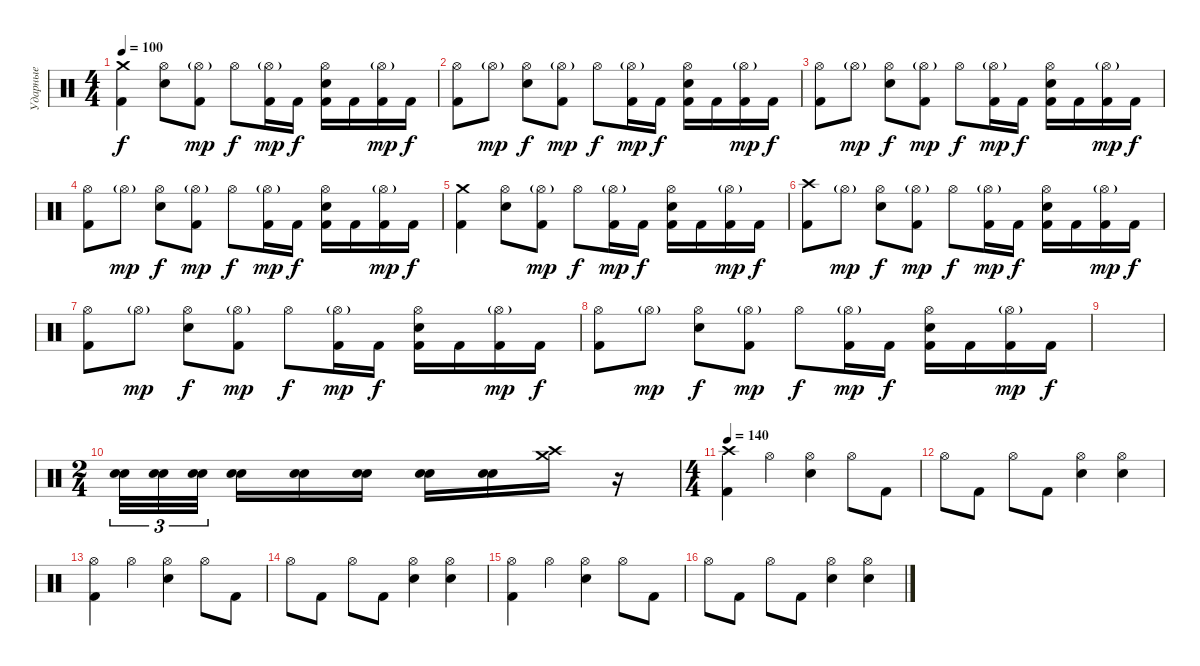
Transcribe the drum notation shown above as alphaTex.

\track ("Ударные" "Ударные") {instrument percussion}
\staff {score}
\articulation defaults
\ts (4 4)
\tempo 100
\clef neutral
\ks c
("Crash medium (hit)" "Kick (hit) 2").4{dy f} ("Hi-Hat (open)" "Snare (hit) 2").8 ("Hi-Hat (open)"{g} "Kick (hit) 2").8{dy mp} "Hi-Hat (open)".8{dy f} ("Hi-Hat (open)"{g} "Kick (hit) 2").16{dy mp} "Kick (hit) 2".16{dy f} ("Hi-Hat (open)" "Snare (hit) 2" "Kick (hit) 2").16 "Kick (hit) 2".16 ("Hi-Hat (open)"{g} "Kick (hit) 2").16{dy mp} "Kick (hit) 2".16{dy f} |
("Hi-Hat (open)" "Kick (hit) 2").8 "Hi-Hat (open)"{g}.8{dy mp} ("Hi-Hat (open)" "Snare (hit) 2").8{dy f} ("Hi-Hat (open)"{g} "Kick (hit) 2").8{dy mp} "Hi-Hat (open)".8{dy f} ("Hi-Hat (open)"{g} "Kick (hit) 2").16{dy mp} "Kick (hit) 2".16{dy f} ("Hi-Hat (open)" "Snare (hit) 2" "Kick (hit) 2").16 "Kick (hit) 2".16 ("Hi-Hat (open)"{g} "Kick (hit) 2").16{dy mp} "Kick (hit) 2".16{dy f} |
("Hi-Hat (open)" "Kick (hit) 2").8 "Hi-Hat (open)"{g}.8{dy mp} ("Hi-Hat (open)" "Snare (hit) 2").8{dy f} ("Hi-Hat (open)"{g} "Kick (hit) 2").8{dy mp} "Hi-Hat (open)".8{dy f} ("Hi-Hat (open)"{g} "Kick (hit) 2").16{dy mp} "Kick (hit) 2".16{dy f} ("Hi-Hat (open)" "Snare (hit) 2" "Kick (hit) 2").16 "Kick (hit) 2".16 ("Hi-Hat (open)"{g} "Kick (hit) 2").16{dy mp} "Kick (hit) 2".16{dy f} |
("Hi-Hat (open)" "Kick (hit) 2").8 "Hi-Hat (open)"{g}.8{dy mp} ("Hi-Hat (open)" "Snare (hit) 2").8{dy f} ("Hi-Hat (open)"{g} "Kick (hit) 2").8{dy mp} "Hi-Hat (open)".8{dy f} ("Hi-Hat (open)"{g} "Kick (hit) 2").16{dy mp} "Kick (hit) 2".16{dy f} ("Hi-Hat (open)" "Snare (hit) 2" "Kick (hit) 2").16 "Kick (hit) 2".16 ("Hi-Hat (open)"{g} "Kick (hit) 2").16{dy mp} "Kick (hit) 2".16{dy f} |
("Crash medium (hit)" "Kick (hit) 2").4 ("Hi-Hat (open)" "Snare (hit) 2").8 ("Hi-Hat (open)"{g} "Kick (hit) 2").8{dy mp} "Hi-Hat (open)".8{dy f} ("Hi-Hat (open)"{g} "Kick (hit) 2").16{dy mp} "Kick (hit) 2".16{dy f} ("Hi-Hat (open)" "Snare (hit) 2" "Kick (hit) 2").16 "Kick (hit) 2".16 ("Hi-Hat (open)"{g} "Kick (hit) 2").16{dy mp} "Kick (hit) 2".16{dy f} |
("Crash high (hit)" "Kick (hit) 2").8 "Hi-Hat (open)"{g}.8{dy mp} ("Hi-Hat (open)" "Snare (hit) 2").8{dy f} ("Hi-Hat (open)"{g} "Kick (hit) 2").8{dy mp} "Hi-Hat (open)".8{dy f} ("Hi-Hat (open)"{g} "Kick (hit) 2").16{dy mp} "Kick (hit) 2".16{dy f} ("Hi-Hat (open)" "Snare (hit) 2" "Kick (hit) 2").16 "Kick (hit) 2".16 ("Hi-Hat (open)"{g} "Kick (hit) 2").16{dy mp} "Kick (hit) 2".16{dy f} |
("Hi-Hat (open)" "Kick (hit) 2").8 "Hi-Hat (open)"{g}.8{dy mp} ("Hi-Hat (open)" "Snare (hit) 2").8{dy f} ("Hi-Hat (open)"{g} "Kick (hit) 2").8{dy mp} "Hi-Hat (open)".8{dy f} ("Hi-Hat (open)"{g} "Kick (hit) 2").16{dy mp} "Kick (hit) 2".16{dy f} ("Hi-Hat (open)" "Snare (hit) 2" "Kick (hit) 2").16 "Kick (hit) 2".16 ("Hi-Hat (open)"{g} "Kick (hit) 2").16{dy mp} "Kick (hit) 2".16{dy f} |
("Hi-Hat (open)" "Kick (hit) 2").8 "Hi-Hat (open)"{g}.8{dy mp} ("Hi-Hat (open)" "Snare (hit) 2").8{dy f} ("Hi-Hat (open)"{g} "Kick (hit) 2").8{dy mp} "Hi-Hat (open)".8{dy f} ("Hi-Hat (open)"{g} "Kick (hit) 2").16{dy mp} "Kick (hit) 2".16{dy f} ("Hi-Hat (open)" "Snare (hit) 2" "Kick (hit) 2").16 "Kick (hit) 2".16 ("Hi-Hat (open)"{g} "Kick (hit) 2").16{dy mp} "Kick (hit) 2".16{dy f} |
|
\ts (2 4)
("Electric Snare (hit)" "Snare (hit) 2").32{tu (3 2)} ("Electric Snare (hit)" "Snare (hit) 2").32{tu (3 2)} ("Electric Snare (hit)" "Snare (hit) 2").32{tu (3 2) beam splitsecondary} ("Electric Snare (hit)" "Snare (hit) 2").16 ("Electric Snare (hit)" "Snare (hit) 2").16 ("Electric Snare (hit)" "Snare (hit) 2").16 ("Electric Snare (hit)" "Snare (hit) 2").16 ("Electric Snare (hit)" "Snare (hit) 2").16 ("Crash high (hit)" "Crash medium (hit)").16 r.16 |
\ts (4 4)
\tempo 140
("Crash high (hit)" "Kick (hit) 2").4 "Hi-Hat (open)".4 ("Hi-Hat (open)" "Snare (hit) 2").4 "Hi-Hat (open)".8 "Kick (hit) 2".8 |
"Hi-Hat (open)".8 "Kick (hit) 2".8 "Hi-Hat (open)".8 "Kick (hit) 2".8 ("Hi-Hat (open)" "Snare (hit) 2").4 ("Hi-Hat (open)" "Snare (hit) 2").4 |
("Hi-Hat (open)" "Kick (hit) 2").4 "Hi-Hat (open)".4 ("Hi-Hat (open)" "Snare (hit) 2").4 "Hi-Hat (open)".8 "Kick (hit) 2".8 |
"Hi-Hat (open)".8 "Kick (hit) 2".8 "Hi-Hat (open)".8 "Kick (hit) 2".8 ("Hi-Hat (open)" "Snare (hit) 2").4 ("Hi-Hat (open)" "Snare (hit) 2").4 |
("Hi-Hat (open)" "Kick (hit) 2").4 "Hi-Hat (open)".4 ("Hi-Hat (open)" "Snare (hit) 2").4 "Hi-Hat (open)".8 "Kick (hit) 2".8 |
"Hi-Hat (open)".8 "Kick (hit) 2".8 "Hi-Hat (open)".8 "Kick (hit) 2".8 ("Hi-Hat (open)" "Snare (hit) 2").4 ("Hi-Hat (open)" "Snare (hit) 2").4
